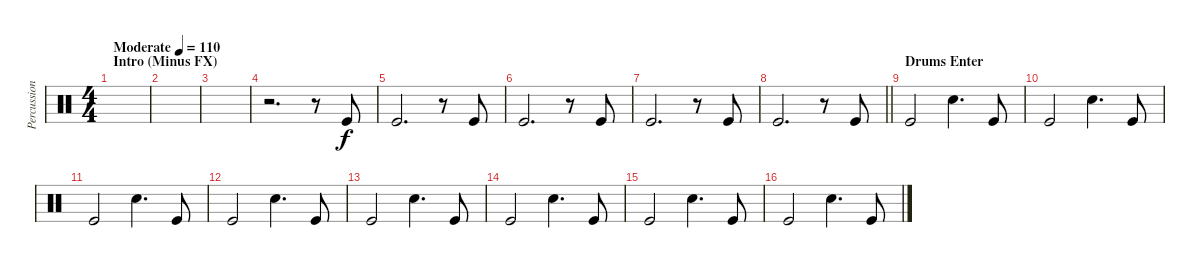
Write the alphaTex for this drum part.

\track ("Percussion" "Percussion") {instrument percussion}
\staff {score}
\articulation defaults
\ts (4 4)
\section ("" "Intro (Minus FX)")
\tempo (110 "Moderate")
\clef neutral
\ks c
|
|
|
r.2{d} r.8 "Kick (hit)".8 |
"Kick (hit)".2{d} r.8 "Kick (hit)".8 |
"Kick (hit)".2{d} r.8 "Kick (hit)".8 |
"Kick (hit)".2{d} r.8 "Kick (hit)".8 |
\barLineRight lightlight "Kick (hit)".2{d}
r.8 "Kick (hit)".8 |
\section ("" "Drums Enter")
"Kick (hit)".2 "Electric Snare (hit)".4{d} "Kick (hit)".8 |
"Kick (hit)".2 "Electric Snare (hit)".4{d} "Kick (hit)".8 |
"Kick (hit)".2 "Electric Snare (hit)".4{d} "Kick (hit)".8 |
"Kick (hit)".2 "Electric Snare (hit)".4{d} "Kick (hit)".8 |
"Kick (hit)".2 "Electric Snare (hit)".4{d} "Kick (hit)".8 |
"Kick (hit)".2 "Electric Snare (hit)".4{d} "Kick (hit)".8 |
"Kick (hit)".2 "Electric Snare (hit)".4{d} "Kick (hit)".8 |
"Kick (hit)".2 "Electric Snare (hit)".4{d} "Kick (hit)".8
